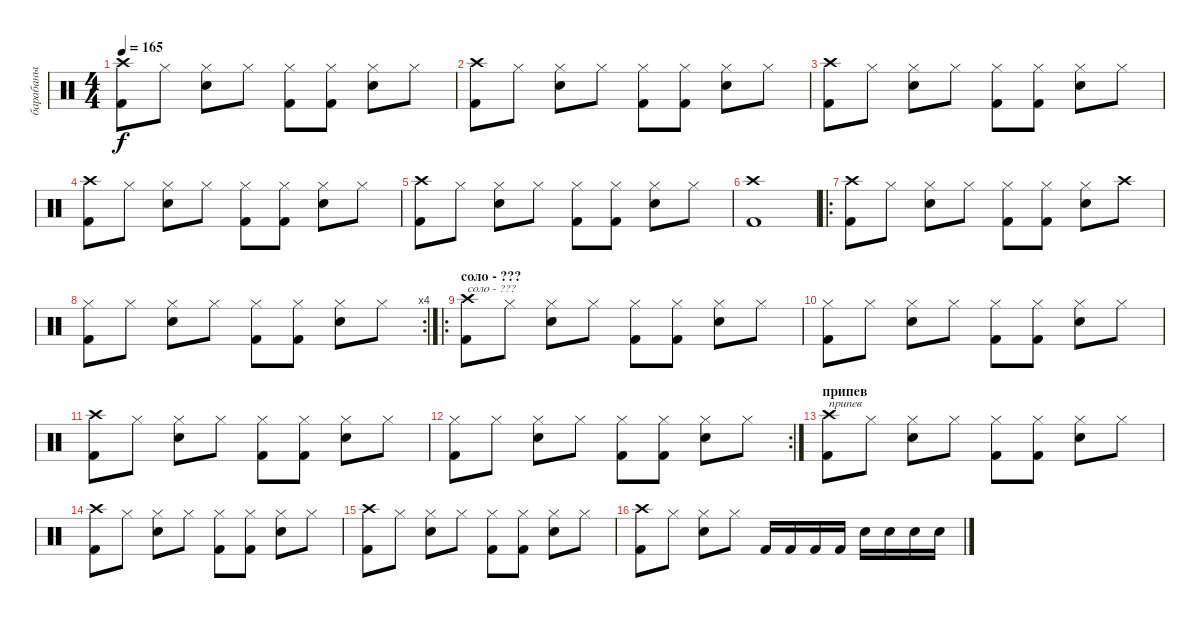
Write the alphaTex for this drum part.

\track ("барабаны" "барабаны") {instrument percussion}
\staff {score}
\articulation defaults
\ts (4 4)
\tempo 165
\clef neutral
\ks c
("Crash high (hit)" "Kick (hit) 2").8{dy f} "Hi-Hat (closed)".8 ("Hi-Hat (closed)" "Snare (hit) 2").8 "Hi-Hat (closed)".8 ("Hi-Hat (closed)" "Kick (hit) 2").8 ("Hi-Hat (closed)" "Kick (hit) 2").8 ("Hi-Hat (closed)" "Snare (hit) 2").8 "Hi-Hat (closed)".8 |
("Crash high (hit)" "Kick (hit) 2").8 "Hi-Hat (closed)".8 ("Hi-Hat (closed)" "Snare (hit) 2").8 "Hi-Hat (closed)".8 ("Hi-Hat (closed)" "Kick (hit) 2").8 ("Hi-Hat (closed)" "Kick (hit) 2").8 ("Hi-Hat (closed)" "Snare (hit) 2").8 "Hi-Hat (closed)".8 |
("Crash high (hit)" "Kick (hit) 2").8 "Hi-Hat (closed)".8 ("Hi-Hat (closed)" "Snare (hit) 2").8 "Hi-Hat (closed)".8 ("Hi-Hat (closed)" "Kick (hit) 2").8 ("Hi-Hat (closed)" "Kick (hit) 2").8 ("Hi-Hat (closed)" "Snare (hit) 2").8 "Hi-Hat (closed)".8 |
("Crash high (hit)" "Kick (hit) 2").8 "Hi-Hat (closed)".8 ("Hi-Hat (closed)" "Snare (hit) 2").8 "Hi-Hat (closed)".8 ("Hi-Hat (closed)" "Kick (hit) 2").8 ("Hi-Hat (closed)" "Kick (hit) 2").8 ("Hi-Hat (closed)" "Snare (hit) 2").8 "Hi-Hat (closed)".8 |
("Crash high (hit)" "Kick (hit) 2").8 "Hi-Hat (closed)".8 ("Hi-Hat (closed)" "Snare (hit) 2").8 "Hi-Hat (closed)".8 ("Hi-Hat (closed)" "Kick (hit) 2").8 ("Hi-Hat (closed)" "Kick (hit) 2").8 ("Hi-Hat (closed)" "Snare (hit) 2").8 "Hi-Hat (closed)".8 |
("Crash high (hit)" "Kick (hit) 2").1 |
\ro
("Crash high (hit)" "Kick (hit) 2").8 "Hi-Hat (closed)".8 ("Hi-Hat (closed)" "Snare (hit) 2").8 "Hi-Hat (closed)".8 ("Hi-Hat (closed)" "Kick (hit) 2").8 ("Hi-Hat (closed)" "Kick (hit) 2").8 ("Hi-Hat (closed)" "Snare (hit) 2").8 "Crash high (hit)".8 |
\rc 4
("Hi-Hat (closed)" "Kick (hit) 2").8 "Hi-Hat (closed)".8 ("Hi-Hat (closed)" "Snare (hit) 2").8 "Hi-Hat (closed)".8 ("Hi-Hat (closed)" "Kick (hit) 2").8 ("Hi-Hat (closed)" "Kick (hit) 2").8 ("Hi-Hat (closed)" "Snare (hit) 2").8 "Hi-Hat (closed)".8 |
\ro
\section ("" "соло - ???")
("Crash high (hit)" "Kick (hit) 2").8{txt "соло - ???"} "Hi-Hat (closed)".8 ("Hi-Hat (closed)" "Snare (hit) 2").8 "Hi-Hat (closed)".8 ("Hi-Hat (closed)" "Kick (hit) 2").8 ("Hi-Hat (closed)" "Kick (hit) 2").8 ("Hi-Hat (closed)" "Snare (hit) 2").8 "Hi-Hat (closed)".8 |
("Hi-Hat (closed)" "Kick (hit) 2").8 "Hi-Hat (closed)".8 ("Hi-Hat (closed)" "Snare (hit) 2").8 "Hi-Hat (closed)".8 ("Hi-Hat (closed)" "Kick (hit) 2").8 ("Hi-Hat (closed)" "Kick (hit) 2").8 ("Hi-Hat (closed)" "Snare (hit) 2").8 "Hi-Hat (closed)".8 |
("Crash high (hit)" "Kick (hit) 2").8 "Hi-Hat (closed)".8 ("Hi-Hat (closed)" "Snare (hit) 2").8 "Hi-Hat (closed)".8 ("Hi-Hat (closed)" "Kick (hit) 2").8 ("Hi-Hat (closed)" "Kick (hit) 2").8 ("Hi-Hat (closed)" "Snare (hit) 2").8 "Hi-Hat (closed)".8 |
\rc 2
("Hi-Hat (closed)" "Kick (hit) 2").8 "Hi-Hat (closed)".8 ("Hi-Hat (closed)" "Snare (hit) 2").8 "Hi-Hat (closed)".8 ("Hi-Hat (closed)" "Kick (hit) 2").8 ("Hi-Hat (closed)" "Kick (hit) 2").8 ("Hi-Hat (closed)" "Snare (hit) 2").8 "Hi-Hat (closed)".8 |
\section ("" "припев")
("Crash high (hit)" "Kick (hit) 2").8{txt "припев"} "Hi-Hat (closed)".8 ("Hi-Hat (closed)" "Snare (hit) 2").8 "Hi-Hat (closed)".8 ("Hi-Hat (closed)" "Kick (hit) 2").8 ("Hi-Hat (closed)" "Kick (hit) 2").8 ("Hi-Hat (closed)" "Snare (hit) 2").8 "Hi-Hat (closed)".8 |
("Crash high (hit)" "Kick (hit) 2").8 "Hi-Hat (closed)".8 ("Hi-Hat (closed)" "Snare (hit) 2").8 "Hi-Hat (closed)".8 ("Hi-Hat (closed)" "Kick (hit) 2").8 ("Hi-Hat (closed)" "Kick (hit) 2").8 ("Hi-Hat (closed)" "Snare (hit) 2").8 "Hi-Hat (closed)".8 |
("Crash high (hit)" "Kick (hit) 2").8 "Hi-Hat (closed)".8 ("Hi-Hat (closed)" "Snare (hit) 2").8 "Hi-Hat (closed)".8 ("Hi-Hat (closed)" "Kick (hit) 2").8 ("Hi-Hat (closed)" "Kick (hit) 2").8 ("Hi-Hat (closed)" "Snare (hit) 2").8 "Hi-Hat (closed)".8 |
("Crash high (hit)" "Kick (hit) 2").8 "Hi-Hat (closed)".8 ("Hi-Hat (closed)" "Snare (hit) 2").8 "Hi-Hat (closed)".8 "Kick (hit) 2".16 "Kick (hit) 2".16 "Kick (hit) 2".16 "Kick (hit) 2".16 "Snare (hit) 2".16 "Snare (hit) 2".16 "Snare (hit) 2".16 "Snare (hit) 2".16
